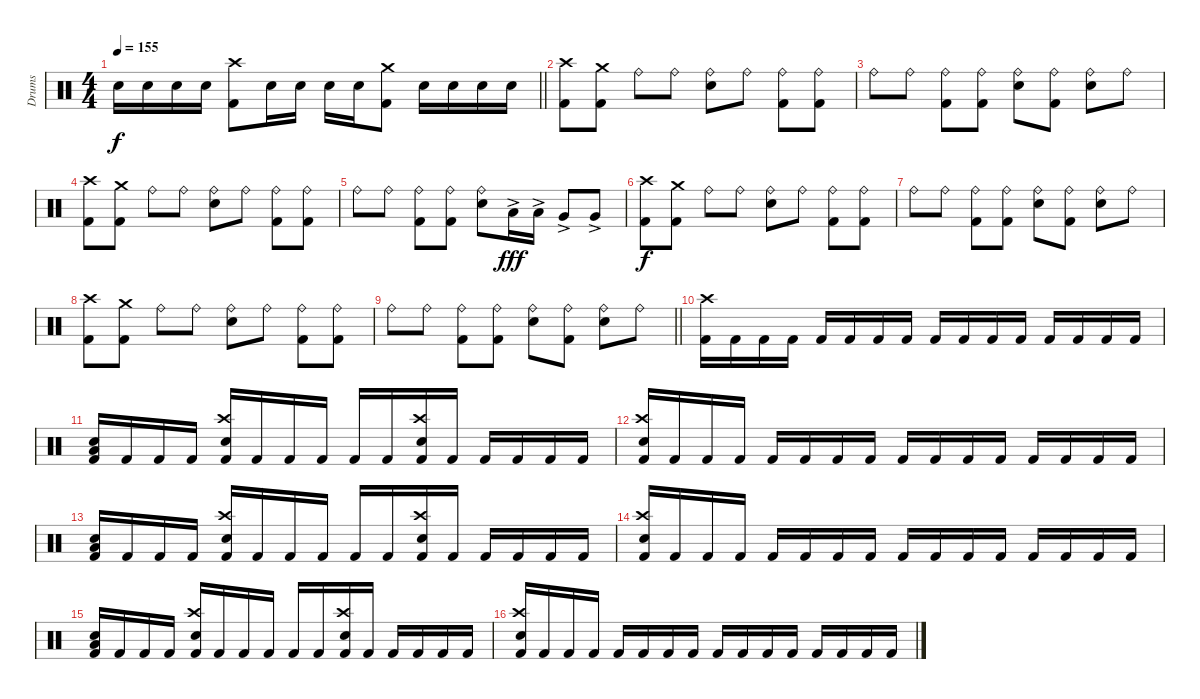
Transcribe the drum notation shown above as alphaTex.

\track ("Drums" "Drums") {instrument percussion}
\staff {score}
\articulation defaults
\ts (4 4)
\tempo 155
\clef neutral
\barLineRight lightlight
\ks c "Snare (hit) 2".16{dy f} "Snare (hit) 2".16 "Snare (hit) 2".16 "Snare (hit) 2".16
("Crash high (hit)" "Kick (hit) 2").8 "Snare (hit) 2".16 "Snare (hit) 2".16 "Snare (hit) 2".16 "Snare (hit) 2".16 ("Crash medium (hit)" "Kick (hit) 2").8 "Snare (hit) 2".16 "Snare (hit) 2".16 "Snare (hit) 2".16 "Snare (hit) 2".16 |
("Crash high (hit)" "Kick (hit) 2").8 ("Crash medium (hit)" "Kick (hit) 2").8 "Ride (bell)".8 "Ride (bell)".8 ("Ride (bell)" "Snare (hit) 2").8 "Ride (bell)".8 ("Ride (bell)" "Kick (hit) 2").8 ("Ride (bell)" "Kick (hit) 2").8 |
"Ride (bell)".8 "Ride (bell)".8 ("Ride (bell)" "Kick (hit) 2").8 ("Ride (bell)" "Kick (hit) 2").8 ("Ride (bell)" "Snare (hit) 2").8 ("Ride (bell)" "Kick (hit) 2").8 ("Ride (bell)" "Snare (hit) 2").8 "Ride (bell)".8 |
("Crash high (hit)" "Kick (hit) 2").8 ("Crash medium (hit)" "Kick (hit) 2").8 "Ride (bell)".8 "Ride (bell)".8 ("Ride (bell)" "Snare (hit) 2").8 "Ride (bell)".8 ("Ride (bell)" "Kick (hit) 2").8 ("Ride (bell)" "Kick (hit) 2").8 |
"Ride (bell)".8 "Ride (bell)".8 ("Ride (bell)" "Kick (hit) 2").8 ("Ride (bell)" "Kick (hit) 2").8 ("Ride (bell)" "Snare (hit) 2").8 "Low Tom (hit)"{ac}.16{dy fff} "Low Tom (hit)"{ac}.16 "Very Low Tom (hit)"{ac}.8 "Very Low Tom (hit)"{ac}.8 |
("Crash high (hit)" "Kick (hit) 2").8{dy f} ("Crash medium (hit)" "Kick (hit) 2").8 "Ride (bell)".8 "Ride (bell)".8 ("Ride (bell)" "Snare (hit) 2").8 "Ride (bell)".8 ("Ride (bell)" "Kick (hit) 2").8 ("Ride (bell)" "Kick (hit) 2").8 |
"Ride (bell)".8 "Ride (bell)".8 ("Ride (bell)" "Kick (hit) 2").8 ("Ride (bell)" "Kick (hit) 2").8 ("Ride (bell)" "Snare (hit) 2").8 ("Ride (bell)" "Kick (hit) 2").8 ("Ride (bell)" "Snare (hit) 2").8 "Ride (bell)".8 |
("Crash high (hit)" "Kick (hit) 2").8 ("Crash medium (hit)" "Kick (hit) 2").8 "Ride (bell)".8 "Ride (bell)".8 ("Ride (bell)" "Snare (hit) 2").8 "Ride (bell)".8 ("Ride (bell)" "Kick (hit) 2").8 ("Ride (bell)" "Kick (hit) 2").8 |
\barLineRight lightlight "Ride (bell)".8 "Ride (bell)".8
("Ride (bell)" "Kick (hit) 2").8 ("Ride (bell)" "Kick (hit) 2").8 ("Ride (bell)" "Snare (hit) 2").8 ("Ride (bell)" "Kick (hit) 2").8 ("Ride (bell)" "Snare (hit) 2").8 "Ride (bell)".8 |
("Crash high (hit)" "Kick (hit) 2").16 "Kick (hit) 2".16 "Kick (hit) 2".16 "Kick (hit) 2".16 "Kick (hit) 2".16 "Kick (hit) 2".16 "Kick (hit) 2".16 "Kick (hit) 2".16 "Kick (hit) 2".16 "Kick (hit) 2".16 "Kick (hit) 2".16 "Kick (hit) 2".16 "Kick (hit) 2".16 "Kick (hit) 2".16 "Kick (hit) 2".16 "Kick (hit) 2".16 |
("Snare (hit) 2" "Low Tom (hit)" "Kick (hit) 2").16 "Kick (hit) 2".16 "Kick (hit) 2".16 "Kick (hit) 2".16 ("Crash high (hit)" "Snare (hit) 2" "Kick (hit) 2").16 "Kick (hit) 2".16 "Kick (hit) 2".16 "Kick (hit) 2".16 "Kick (hit) 2".16 "Kick (hit) 2".16 ("Crash high (hit)" "Snare (hit) 2" "Kick (hit) 2").16 "Kick (hit) 2".16 "Kick (hit) 2".16 "Kick (hit) 2".16 "Kick (hit) 2".16 "Kick (hit) 2".16 |
("Crash high (hit)" "Snare (hit) 2" "Kick (hit) 2").16 "Kick (hit) 2".16 "Kick (hit) 2".16 "Kick (hit) 2".16 "Kick (hit) 2".16 "Kick (hit) 2".16 "Kick (hit) 2".16 "Kick (hit) 2".16 "Kick (hit) 2".16 "Kick (hit) 2".16 "Kick (hit) 2".16 "Kick (hit) 2".16 "Kick (hit) 2".16 "Kick (hit) 2".16 "Kick (hit) 2".16 "Kick (hit) 2".16 |
("Snare (hit) 2" "Low Tom (hit)" "Kick (hit) 2").16 "Kick (hit) 2".16 "Kick (hit) 2".16 "Kick (hit) 2".16 ("Crash high (hit)" "Snare (hit) 2" "Kick (hit) 2").16 "Kick (hit) 2".16 "Kick (hit) 2".16 "Kick (hit) 2".16 "Kick (hit) 2".16 "Kick (hit) 2".16 ("Crash high (hit)" "Snare (hit) 2" "Kick (hit) 2").16 "Kick (hit) 2".16 "Kick (hit) 2".16 "Kick (hit) 2".16 "Kick (hit) 2".16 "Kick (hit) 2".16 |
("Crash high (hit)" "Snare (hit) 2" "Kick (hit) 2").16 "Kick (hit) 2".16 "Kick (hit) 2".16 "Kick (hit) 2".16 "Kick (hit) 2".16 "Kick (hit) 2".16 "Kick (hit) 2".16 "Kick (hit) 2".16 "Kick (hit) 2".16 "Kick (hit) 2".16 "Kick (hit) 2".16 "Kick (hit) 2".16 "Kick (hit) 2".16 "Kick (hit) 2".16 "Kick (hit) 2".16 "Kick (hit) 2".16 |
("Snare (hit) 2" "Low Tom (hit)" "Kick (hit) 2").16 "Kick (hit) 2".16 "Kick (hit) 2".16 "Kick (hit) 2".16 ("Crash high (hit)" "Snare (hit) 2" "Kick (hit) 2").16 "Kick (hit) 2".16 "Kick (hit) 2".16 "Kick (hit) 2".16 "Kick (hit) 2".16 "Kick (hit) 2".16 ("Crash high (hit)" "Snare (hit) 2" "Kick (hit) 2").16 "Kick (hit) 2".16 "Kick (hit) 2".16 "Kick (hit) 2".16 "Kick (hit) 2".16 "Kick (hit) 2".16 |
("Crash high (hit)" "Snare (hit) 2" "Kick (hit) 2").16 "Kick (hit) 2".16 "Kick (hit) 2".16 "Kick (hit) 2".16 "Kick (hit) 2".16 "Kick (hit) 2".16 "Kick (hit) 2".16 "Kick (hit) 2".16 "Kick (hit) 2".16 "Kick (hit) 2".16 "Kick (hit) 2".16 "Kick (hit) 2".16 "Kick (hit) 2".16 "Kick (hit) 2".16 "Kick (hit) 2".16 "Kick (hit) 2".16
